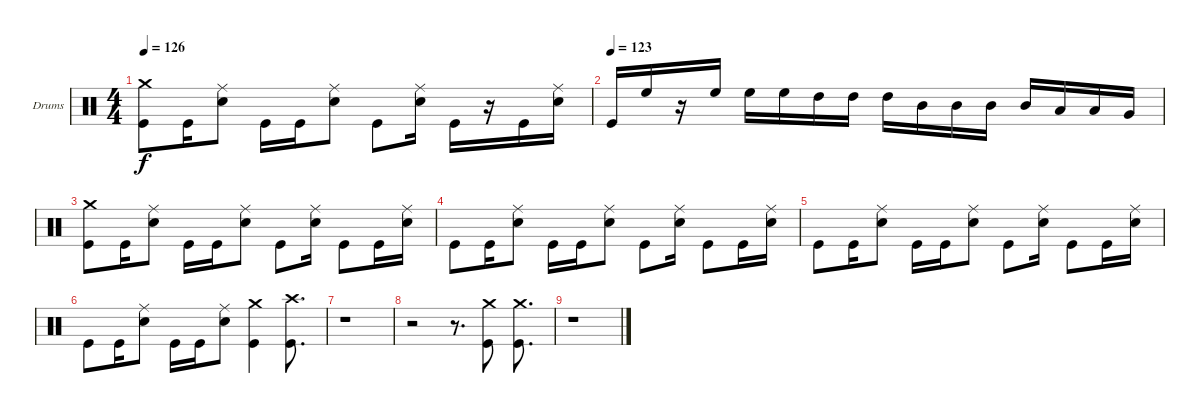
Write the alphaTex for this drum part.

\bracketExtendMode groupsimilarinstruments
\firstSystemTrackNameOrientation horizontal
\otherSystemsTrackNameOrientation horizontal
\track ("Vinny Appice" "Drums") {instrument percussion}
\staff {score}
\articulation defaults
\ts (4 4)
\tempo 126
\clef neutral
\ks aminor
("Crash medium (hit)" "Kick (hit)").8{dy f} "Kick (hit)".16 ("Snare (hit) 2" "Ride (middle)").8 "Kick (hit)".16 "Kick (hit)".16 ("Snare (hit) 2" "Ride (middle)").8 "Kick (hit)".8 ("Snare (hit) 2" "Ride (middle)").16 "Kick (hit)".16 r.16 "Kick (hit)".16 ("Snare (hit) 2" "Ride (middle)").16 |
\tempo (123)
"Kick (hit)".16 "High Floor Tom (hit)".16 r.16 "High Floor Tom (hit)".16 "High Floor Tom (hit)".16 "High Floor Tom (hit)".16 "High Tom (hit)".16 "High Tom (hit)".16 "High Tom (hit)".16 "Mid Tom (hit)".16 "Mid Tom (hit)".16 "Mid Tom (hit)".16 "Mid Tom (hit)".16 "Low Tom (hit)".16 "Low Tom (hit)".16 "Very Low Tom (hit)".16 |
("Crash medium (hit)" "Kick (hit)").8 "Kick (hit)".16 ("Snare (hit) 2" "Ride (middle)").8 "Kick (hit)".16 "Kick (hit)".16 ("Snare (hit) 2" "Ride (middle)").8 "Kick (hit)".8 ("Snare (hit) 2" "Ride (middle)").16 "Kick (hit)".8 "Kick (hit)".16 ("Snare (hit) 2" "Ride (middle)").16 |
"Kick (hit)".8 "Kick (hit)".16 ("Snare (hit) 2" "Ride (middle)").8 "Kick (hit)".16 "Kick (hit)".16 ("Snare (hit) 2" "Ride (middle)").8 "Kick (hit)".8 ("Snare (hit) 2" "Ride (middle)").16 "Kick (hit)".8 "Kick (hit)".16 ("Snare (hit) 2" "Ride (middle)").16 |
"Kick (hit)".8 "Kick (hit)".16 ("Snare (hit) 2" "Ride (middle)").8 "Kick (hit)".16 "Kick (hit)".16 ("Snare (hit) 2" "Ride (middle)").8 "Kick (hit)".8 ("Snare (hit) 2" "Ride (middle)").16 "Kick (hit)".8 "Kick (hit)".16 ("Snare (hit) 2" "Ride (middle)").16 |
"Kick (hit)".8 "Kick (hit)".16 ("Snare (hit) 2" "Ride (middle)").8 "Kick (hit)".16 "Kick (hit)".16 ("Snare (hit) 2" "Ride (middle)").8 ("Crash medium (hit)" "Kick (hit)").4 ("Kick (hit)" "Crash high (hit)").8{d} |
r.1 |
r.2 r.8{d} ("Crash medium (hit)" "Kick (hit)").8 ("Kick (hit)" "Crash medium (hit)").8{d} |
r.1
